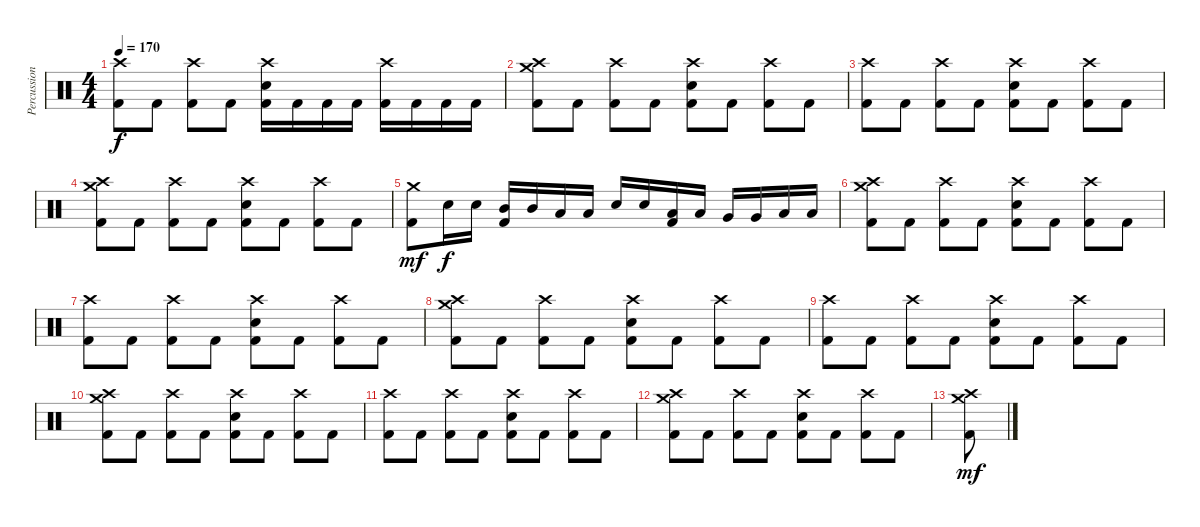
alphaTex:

\track ("Percussion" "Percussion") {instrument percussion}
\staff {score}
\articulation defaults
\ts (4 4)
\tempo 170
\clef neutral
\ks c
("Crash high (hit)" "Kick (hit) 2").8{dy f} "Kick (hit) 2".8 ("Crash high (hit)" "Kick (hit) 2").8 "Kick (hit) 2".8 ("Crash high (hit)" "Snare (hit) 2" "Kick (hit) 2").16 "Kick (hit) 2".16 "Kick (hit) 2".16 "Kick (hit) 2".16 ("Crash high (hit)" "Kick (hit) 2").16 "Kick (hit) 2".16 "Kick (hit) 2".16 "Kick (hit) 2".16 |
("Crash medium (hit)" "Crash high (hit)" "Kick (hit) 2").8 "Kick (hit) 2".8 ("Crash high (hit)" "Kick (hit) 2").8 "Kick (hit) 2".8 ("Crash high (hit)" "Snare (hit) 2" "Kick (hit) 2").8 "Kick (hit) 2".8 ("Crash high (hit)" "Kick (hit) 2").8 "Kick (hit) 2".8 |
("Crash high (hit)" "Kick (hit) 2").8 "Kick (hit) 2".8 ("Crash high (hit)" "Kick (hit) 2").8 "Kick (hit) 2".8 ("Crash high (hit)" "Snare (hit) 2" "Kick (hit) 2").8 "Kick (hit) 2".8 ("Crash high (hit)" "Kick (hit) 2").8 "Kick (hit) 2".8 |
("Crash medium (hit)" "Crash high (hit)" "Kick (hit) 2").8 "Kick (hit) 2".8 ("Crash high (hit)" "Kick (hit) 2").8 "Kick (hit) 2".8 ("Crash high (hit)" "Snare (hit) 2" "Kick (hit) 2").8 "Kick (hit) 2".8 ("Crash high (hit)" "Kick (hit) 2").8 "Kick (hit) 2".8 |
("Kick (hit) 2" "Crash medium (hit)").8{dy mf} "Snare (hit) 2".16{dy f} "Snare (hit) 2".16 ("Kick (hit) 2" "Mid Tom (hit)").16 "Mid Tom (hit)".16 "Low Tom (hit)".16 "Low Tom (hit)".16 "Snare (hit) 2".16 "Snare (hit) 2".16 ("Kick (hit) 2" "Low Tom (hit)").16 "Low Tom (hit)".16 "Very Low Tom (hit)".16 "Very Low Tom (hit)".16 "Low Floor Tom (hit)".16 "Low Floor Tom (hit)".16 |
("Crash medium (hit)" "Crash high (hit)" "Kick (hit) 2").8 "Kick (hit) 2".8 ("Crash high (hit)" "Kick (hit) 2").8 "Kick (hit) 2".8 ("Crash high (hit)" "Snare (hit) 2" "Kick (hit) 2").8 "Kick (hit) 2".8 ("Crash high (hit)" "Kick (hit) 2").8 "Kick (hit) 2".8 |
("Crash high (hit)" "Kick (hit) 2").8 "Kick (hit) 2".8 ("Crash high (hit)" "Kick (hit) 2").8 "Kick (hit) 2".8 ("Crash high (hit)" "Snare (hit) 2" "Kick (hit) 2").8 "Kick (hit) 2".8 ("Crash high (hit)" "Kick (hit) 2").8 "Kick (hit) 2".8 |
("Crash medium (hit)" "Crash high (hit)" "Kick (hit) 2").8 "Kick (hit) 2".8 ("Crash high (hit)" "Kick (hit) 2").8 "Kick (hit) 2".8 ("Crash high (hit)" "Snare (hit) 2" "Kick (hit) 2").8 "Kick (hit) 2".8 ("Crash high (hit)" "Kick (hit) 2").8 "Kick (hit) 2".8 |
("Crash high (hit)" "Kick (hit) 2").8 "Kick (hit) 2".8 ("Crash high (hit)" "Kick (hit) 2").8 "Kick (hit) 2".8 ("Crash high (hit)" "Snare (hit) 2" "Kick (hit) 2").8 "Kick (hit) 2".8 ("Crash high (hit)" "Kick (hit) 2").8 "Kick (hit) 2".8 |
("Crash medium (hit)" "Crash high (hit)" "Kick (hit) 2").8 "Kick (hit) 2".8 ("Crash high (hit)" "Kick (hit) 2").8 "Kick (hit) 2".8 ("Crash high (hit)" "Snare (hit) 2" "Kick (hit) 2").8 "Kick (hit) 2".8 ("Crash high (hit)" "Kick (hit) 2").8 "Kick (hit) 2".8 |
("Crash high (hit)" "Kick (hit) 2").8 "Kick (hit) 2".8 ("Crash high (hit)" "Kick (hit) 2").8 "Kick (hit) 2".8 ("Crash high (hit)" "Snare (hit) 2" "Kick (hit) 2").8 "Kick (hit) 2".8 ("Crash high (hit)" "Kick (hit) 2").8 "Kick (hit) 2".8 |
("Crash medium (hit)" "Crash high (hit)" "Kick (hit) 2").8 "Kick (hit) 2".8 ("Crash high (hit)" "Kick (hit) 2").8 "Kick (hit) 2".8 ("Crash high (hit)" "Snare (hit) 2" "Kick (hit) 2").8 "Kick (hit) 2".8 ("Crash high (hit)" "Kick (hit) 2").8 "Kick (hit) 2".8 |
("Kick (hit) 2" "Crash high (hit)" "Crash medium (hit)").8{dy mf}
